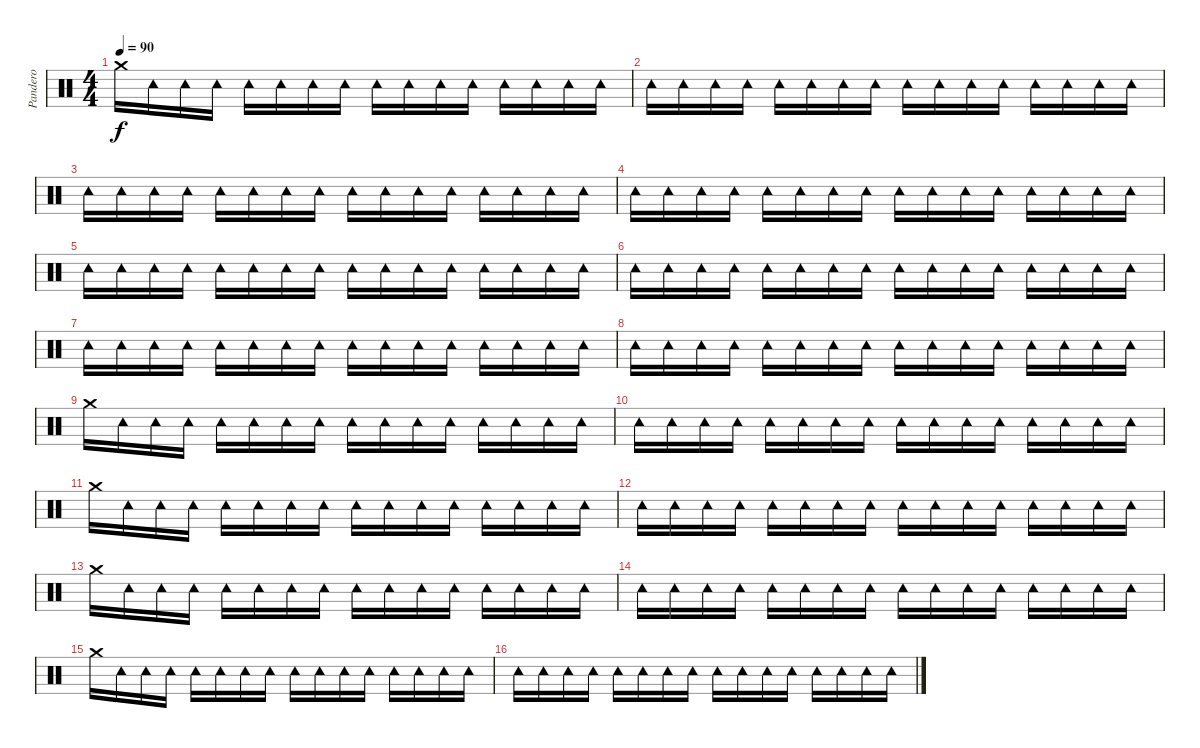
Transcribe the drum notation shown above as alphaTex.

\track ("Pandero" "Pandero") {instrument percussion}
\staff {score}
\articulation defaults
\ts (4 4)
\tempo 90
\clef neutral
\ks c "Crash medium (hit)".16{dy f} "Tambourine (hit)".16 "Tambourine (hit)".16 "Tambourine (hit)".16 "Tambourine (hit)".16 "Tambourine (hit)".16 "Tambourine (hit)".16 "Tambourine (hit)".16 "Tambourine (hit)".16 "Tambourine (hit)".16 "Tambourine (hit)".16 "Tambourine (hit)".16 "Tambourine (hit)".16 "Tambourine (hit)".16 "Tambourine (hit)".16 "Tambourine (hit)".16
|
"Tambourine (hit)".16 "Tambourine (hit)".16 "Tambourine (hit)".16 "Tambourine (hit)".16 "Tambourine (hit)".16 "Tambourine (hit)".16 "Tambourine (hit)".16 "Tambourine (hit)".16 "Tambourine (hit)".16 "Tambourine (hit)".16 "Tambourine (hit)".16 "Tambourine (hit)".16 "Tambourine (hit)".16 "Tambourine (hit)".16 "Tambourine (hit)".16 "Tambourine (hit)".16 |
"Tambourine (hit)".16 "Tambourine (hit)".16 "Tambourine (hit)".16 "Tambourine (hit)".16 "Tambourine (hit)".16 "Tambourine (hit)".16 "Tambourine (hit)".16 "Tambourine (hit)".16 "Tambourine (hit)".16 "Tambourine (hit)".16 "Tambourine (hit)".16 "Tambourine (hit)".16 "Tambourine (hit)".16 "Tambourine (hit)".16 "Tambourine (hit)".16 "Tambourine (hit)".16 |
"Tambourine (hit)".16 "Tambourine (hit)".16 "Tambourine (hit)".16 "Tambourine (hit)".16 "Tambourine (hit)".16 "Tambourine (hit)".16 "Tambourine (hit)".16 "Tambourine (hit)".16 "Tambourine (hit)".16 "Tambourine (hit)".16 "Tambourine (hit)".16 "Tambourine (hit)".16 "Tambourine (hit)".16 "Tambourine (hit)".16 "Tambourine (hit)".16 "Tambourine (hit)".16 |
"Tambourine (hit)".16 "Tambourine (hit)".16 "Tambourine (hit)".16 "Tambourine (hit)".16 "Tambourine (hit)".16 "Tambourine (hit)".16 "Tambourine (hit)".16 "Tambourine (hit)".16 "Tambourine (hit)".16 "Tambourine (hit)".16 "Tambourine (hit)".16 "Tambourine (hit)".16 "Tambourine (hit)".16 "Tambourine (hit)".16 "Tambourine (hit)".16 "Tambourine (hit)".16 |
"Tambourine (hit)".16 "Tambourine (hit)".16 "Tambourine (hit)".16 "Tambourine (hit)".16 "Tambourine (hit)".16 "Tambourine (hit)".16 "Tambourine (hit)".16 "Tambourine (hit)".16 "Tambourine (hit)".16 "Tambourine (hit)".16 "Tambourine (hit)".16 "Tambourine (hit)".16 "Tambourine (hit)".16 "Tambourine (hit)".16 "Tambourine (hit)".16 "Tambourine (hit)".16 |
"Tambourine (hit)".16 "Tambourine (hit)".16 "Tambourine (hit)".16 "Tambourine (hit)".16 "Tambourine (hit)".16 "Tambourine (hit)".16 "Tambourine (hit)".16 "Tambourine (hit)".16 "Tambourine (hit)".16 "Tambourine (hit)".16 "Tambourine (hit)".16 "Tambourine (hit)".16 "Tambourine (hit)".16 "Tambourine (hit)".16 "Tambourine (hit)".16 "Tambourine (hit)".16 |
"Tambourine (hit)".16 "Tambourine (hit)".16 "Tambourine (hit)".16 "Tambourine (hit)".16 "Tambourine (hit)".16 "Tambourine (hit)".16 "Tambourine (hit)".16 "Tambourine (hit)".16 "Tambourine (hit)".16 "Tambourine (hit)".16 "Tambourine (hit)".16 "Tambourine (hit)".16 "Tambourine (hit)".16 "Tambourine (hit)".16 "Tambourine (hit)".16 "Tambourine (hit)".16 |
"Crash medium (hit)".16 "Tambourine (hit)".16 "Tambourine (hit)".16 "Tambourine (hit)".16 "Tambourine (hit)".16 "Tambourine (hit)".16 "Tambourine (hit)".16 "Tambourine (hit)".16 "Tambourine (hit)".16 "Tambourine (hit)".16 "Tambourine (hit)".16 "Tambourine (hit)".16 "Tambourine (hit)".16 "Tambourine (hit)".16 "Tambourine (hit)".16 "Tambourine (hit)".16 |
"Tambourine (hit)".16 "Tambourine (hit)".16 "Tambourine (hit)".16 "Tambourine (hit)".16 "Tambourine (hit)".16 "Tambourine (hit)".16 "Tambourine (hit)".16 "Tambourine (hit)".16 "Tambourine (hit)".16 "Tambourine (hit)".16 "Tambourine (hit)".16 "Tambourine (hit)".16 "Tambourine (hit)".16 "Tambourine (hit)".16 "Tambourine (hit)".16 "Tambourine (hit)".16 |
"Crash medium (hit)".16 "Tambourine (hit)".16 "Tambourine (hit)".16 "Tambourine (hit)".16 "Tambourine (hit)".16 "Tambourine (hit)".16 "Tambourine (hit)".16 "Tambourine (hit)".16 "Tambourine (hit)".16 "Tambourine (hit)".16 "Tambourine (hit)".16 "Tambourine (hit)".16 "Tambourine (hit)".16 "Tambourine (hit)".16 "Tambourine (hit)".16 "Tambourine (hit)".16 |
"Tambourine (hit)".16 "Tambourine (hit)".16 "Tambourine (hit)".16 "Tambourine (hit)".16 "Tambourine (hit)".16 "Tambourine (hit)".16 "Tambourine (hit)".16 "Tambourine (hit)".16 "Tambourine (hit)".16 "Tambourine (hit)".16 "Tambourine (hit)".16 "Tambourine (hit)".16 "Tambourine (hit)".16 "Tambourine (hit)".16 "Tambourine (hit)".16 "Tambourine (hit)".16 |
"Crash medium (hit)".16 "Tambourine (hit)".16 "Tambourine (hit)".16 "Tambourine (hit)".16 "Tambourine (hit)".16 "Tambourine (hit)".16 "Tambourine (hit)".16 "Tambourine (hit)".16 "Tambourine (hit)".16 "Tambourine (hit)".16 "Tambourine (hit)".16 "Tambourine (hit)".16 "Tambourine (hit)".16 "Tambourine (hit)".16 "Tambourine (hit)".16 "Tambourine (hit)".16 |
"Tambourine (hit)".16 "Tambourine (hit)".16 "Tambourine (hit)".16 "Tambourine (hit)".16 "Tambourine (hit)".16 "Tambourine (hit)".16 "Tambourine (hit)".16 "Tambourine (hit)".16 "Tambourine (hit)".16 "Tambourine (hit)".16 "Tambourine (hit)".16 "Tambourine (hit)".16 "Tambourine (hit)".16 "Tambourine (hit)".16 "Tambourine (hit)".16 "Tambourine (hit)".16 |
"Crash medium (hit)".16 "Tambourine (hit)".16 "Tambourine (hit)".16 "Tambourine (hit)".16 "Tambourine (hit)".16 "Tambourine (hit)".16 "Tambourine (hit)".16 "Tambourine (hit)".16 "Tambourine (hit)".16 "Tambourine (hit)".16 "Tambourine (hit)".16 "Tambourine (hit)".16 "Tambourine (hit)".16 "Tambourine (hit)".16 "Tambourine (hit)".16 "Tambourine (hit)".16 |
"Tambourine (hit)".16 "Tambourine (hit)".16 "Tambourine (hit)".16 "Tambourine (hit)".16 "Tambourine (hit)".16 "Tambourine (hit)".16 "Tambourine (hit)".16 "Tambourine (hit)".16 "Tambourine (hit)".16 "Tambourine (hit)".16 "Tambourine (hit)".16 "Tambourine (hit)".16 "Tambourine (hit)".16 "Tambourine (hit)".16 "Tambourine (hit)".16 "Tambourine (hit)".16
